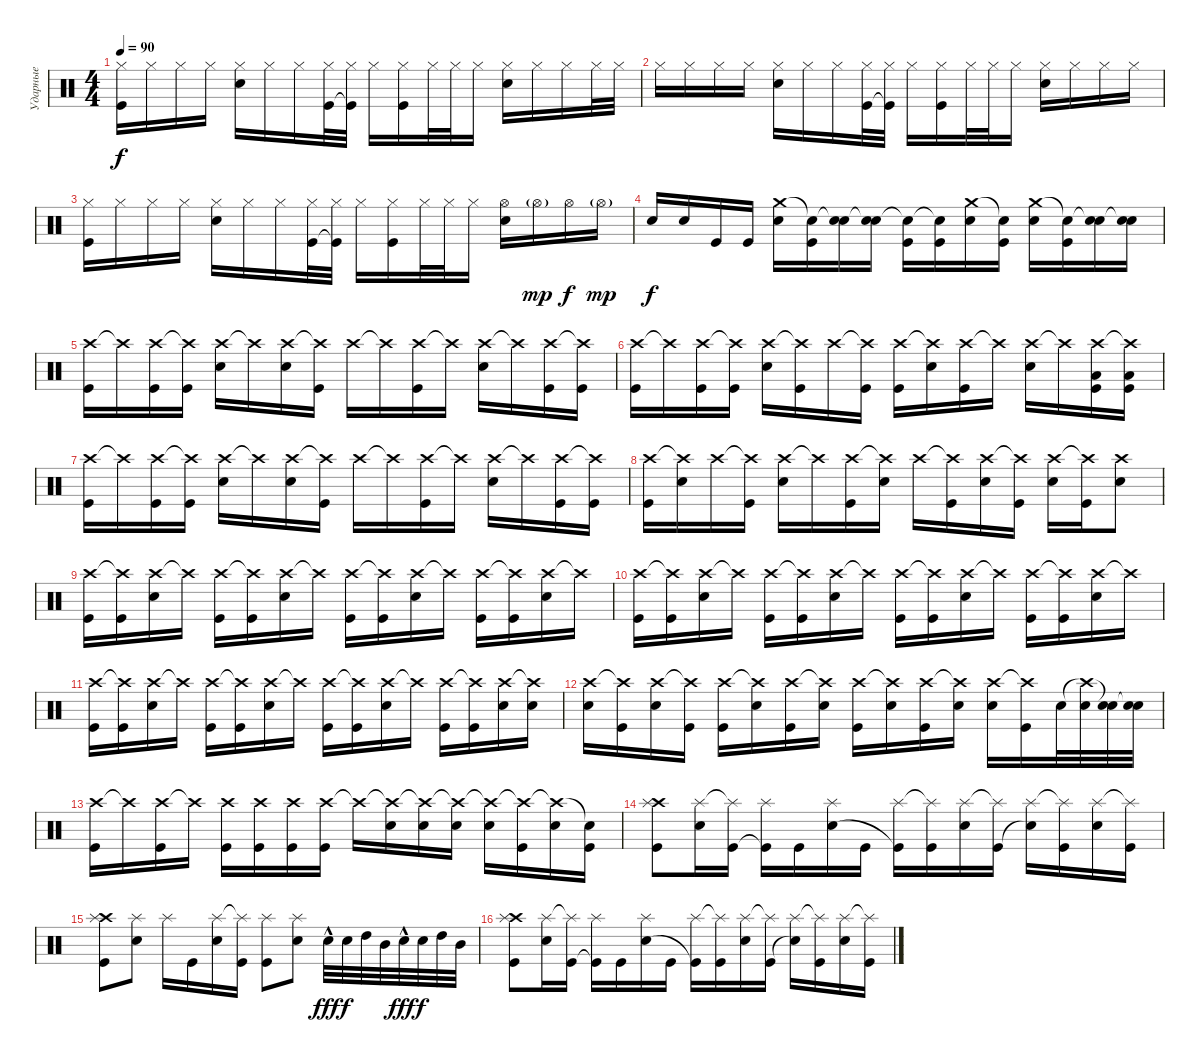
\track ("Ударные" "Ударные") {instrument percussion}
\staff {score}
\articulation defaults
\ts (4 4)
\tempo 90
\clef neutral
\ks c
("Hi-Hat (closed)" "Kick (hit)").16{dy f} "Hi-Hat (closed)".16 "Hi-Hat (closed)".16 "Hi-Hat (closed)".16 ("Hi-Hat (closed)" "Electric Snare (hit)").16 "Hi-Hat (closed)".16 "Hi-Hat (closed)".16 ("Hi-Hat (closed)" "Kick (hit)").32 ("Hi-Hat (closed)" "Kick (hit)"{t}).32 "Hi-Hat (closed)".16 ("Hi-Hat (closed)" "Kick (hit)").16 "Hi-Hat (closed)".32 "Hi-Hat (closed)".32 "Hi-Hat (closed)".16 ("Hi-Hat (closed)" "Electric Snare (hit)").16 "Hi-Hat (closed)".16 "Hi-Hat (closed)".16 "Hi-Hat (closed)".32 "Hi-Hat (closed)".32 |
"Hi-Hat (closed)".16 "Hi-Hat (closed)".16 "Hi-Hat (closed)".16 "Hi-Hat (closed)".16 ("Hi-Hat (closed)" "Electric Snare (hit)").16 "Hi-Hat (closed)".16 "Hi-Hat (closed)".16 ("Hi-Hat (closed)" "Kick (hit)").32 ("Hi-Hat (closed)" "Kick (hit)"{t}).32 "Hi-Hat (closed)".16 ("Hi-Hat (closed)" "Kick (hit)").16 "Hi-Hat (closed)".32 "Hi-Hat (closed)".32 "Hi-Hat (closed)".16 ("Hi-Hat (closed)" "Electric Snare (hit)").16 "Hi-Hat (closed)".16 "Hi-Hat (closed)".16 "Hi-Hat (closed)".16 |
("Hi-Hat (closed)" "Kick (hit)").16 "Hi-Hat (closed)".16 "Hi-Hat (closed)".16 "Hi-Hat (closed)".16 ("Hi-Hat (closed)" "Electric Snare (hit)").16 "Hi-Hat (closed)".16 "Hi-Hat (closed)".16 ("Hi-Hat (closed)" "Kick (hit)").32 ("Hi-Hat (closed)" "Kick (hit)"{t}).32 "Hi-Hat (closed)".16 ("Hi-Hat (closed)" "Kick (hit)").16 "Hi-Hat (closed)".32 "Hi-Hat (closed)".32 "Hi-Hat (closed)".16 ("Hi-Hat (open)" "Electric Snare (hit)").16 "Hi-Hat (open)"{g}.16{dy mp} "Hi-Hat (open)".16{dy f} "Hi-Hat (open)"{g}.16{dy mp} |
"Electric Snare (hit)".16{dy f} "Electric Snare (hit)".16 "Kick (hit)".16 "Kick (hit)".16 ("Crash medium (hit)" "Electric Snare (hit)").16 ("Snare (hit)"{t} "Kick (hit)").16 ("Snare (hit)"{t} "Electric Snare (hit)").16 ("Snare (hit)"{t} "Electric Snare (hit)").16 ("Snare (hit)"{t} "Kick (hit)").16 ("Snare (hit)"{t} "Kick (hit)").16 ("Crash medium (hit)" "Electric Snare (hit)").16 ("Snare (hit)"{t} "Kick (hit)").16 ("Crash medium (hit)" "Electric Snare (hit)").16 ("Snare (hit)"{t} "Kick (hit)").16 ("Snare (hit)"{t} "Electric Snare (hit)").16 ("Snare (hit)"{t} "Electric Snare (hit)").16 |
("Crash high (hit)" "Kick (hit)").16 "Crash high (hit)"{t}.16 ("Crash high (hit)" "Kick (hit)").16 ("Crash high (hit)"{t} "Kick (hit)").16 ("Crash high (hit)" "Electric Snare (hit)").16 "Crash high (hit)"{t}.16 ("Crash high (hit)" "Electric Snare (hit)").16 ("Crash high (hit)"{t} "Kick (hit)").16 "Crash high (hit)".16 "Crash high (hit)"{t}.16 ("Crash high (hit)" "Kick (hit)").16 "Crash high (hit)"{t}.16 ("Crash high (hit)" "Electric Snare (hit)").16 "Crash high (hit)"{t}.16 ("Crash high (hit)" "Kick (hit)").16 ("Crash high (hit)"{t} "Kick (hit)").16 |
("Crash high (hit)" "Kick (hit)").16 "Crash high (hit)"{t}.16 ("Crash high (hit)" "Kick (hit)").16 ("Crash high (hit)"{t} "Kick (hit)").16 ("Crash high (hit)" "Electric Snare (hit)").16 ("Crash high (hit)"{t} "Kick (hit)").16 "Crash high (hit)".16 ("Crash high (hit)"{t} "Kick (hit)").16 ("Crash high (hit)" "Kick (hit)").16 ("Crash high (hit)"{t} "Electric Snare (hit)").16 ("Crash high (hit)" "Kick (hit)").16 "Crash high (hit)"{t}.16 ("Crash high (hit)" "Electric Snare (hit)").16 "Crash high (hit)"{t}.16 ("Crash high (hit)" "Low Tom (hit)" "Kick (hit)").16 ("Crash high (hit)"{t} "Low Tom (hit)" "Kick (hit)").16 |
("Crash high (hit)" "Kick (hit)").16 "Crash high (hit)"{t}.16 ("Crash high (hit)" "Kick (hit)").16 ("Crash high (hit)"{t} "Kick (hit)").16 ("Crash high (hit)" "Electric Snare (hit)").16 "Crash high (hit)"{t}.16 ("Crash high (hit)" "Electric Snare (hit)").16 ("Crash high (hit)"{t} "Kick (hit)").16 "Crash high (hit)".16 "Crash high (hit)"{t}.16 ("Crash high (hit)" "Kick (hit)").16 "Crash high (hit)"{t}.16 ("Crash high (hit)" "Electric Snare (hit)").16 "Crash high (hit)"{t}.16 ("Crash high (hit)" "Kick (hit)").16 ("Crash high (hit)"{t} "Kick (hit)").16 |
("Crash high (hit)" "Kick (hit)").16 ("Crash high (hit)"{t} "Electric Snare (hit)").16 "Crash high (hit)".16 ("Crash high (hit)"{t} "Kick (hit)").16 ("Crash high (hit)" "Electric Snare (hit)").16 "Crash high (hit)"{t}.16 ("Crash high (hit)" "Kick (hit)").16 ("Crash high (hit)"{t} "Electric Snare (hit)").16 "Crash high (hit)".16 ("Crash high (hit)"{t} "Kick (hit)").16 ("Crash high (hit)" "Electric Snare (hit)").16 ("Crash high (hit)"{t} "Kick (hit)").16 ("Crash high (hit)" "Electric Snare (hit)").16 ("Crash high (hit)"{t} "Kick (hit)").16 ("Crash high (hit)" "Electric Snare (hit)").8 |
("Crash high (hit)" "Kick (hit)").16 ("Crash high (hit)"{t} "Kick (hit)").16 ("Crash high (hit)" "Electric Snare (hit)").16 "Crash high (hit)"{t}.16 ("Crash high (hit)" "Kick (hit)").16 ("Crash high (hit)"{t} "Kick (hit)").16 ("Crash high (hit)" "Electric Snare (hit)").16 "Crash high (hit)"{t}.16 ("Crash high (hit)" "Kick (hit)").16 ("Crash high (hit)"{t} "Kick (hit)").16 ("Crash high (hit)" "Electric Snare (hit)").16 "Crash high (hit)"{t}.16 ("Crash high (hit)" "Kick (hit)").16 ("Crash high (hit)"{t} "Kick (hit)").16 ("Crash high (hit)" "Electric Snare (hit)").16 "Crash high (hit)"{t}.16 |
("Crash high (hit)" "Kick (hit)").16 ("Crash high (hit)"{t} "Kick (hit)").16 ("Crash high (hit)" "Electric Snare (hit)").16 "Crash high (hit)"{t}.16 ("Crash high (hit)" "Kick (hit)").16 ("Crash high (hit)"{t} "Kick (hit)").16 ("Crash high (hit)" "Electric Snare (hit)").16 "Crash high (hit)"{t}.16 ("Crash high (hit)" "Kick (hit)").16 ("Crash high (hit)"{t} "Kick (hit)").16 ("Crash high (hit)" "Electric Snare (hit)").16 "Crash high (hit)"{t}.16 ("Crash high (hit)" "Kick (hit)").16 ("Crash high (hit)"{t} "Kick (hit)").16 ("Crash high (hit)" "Electric Snare (hit)").16 "Crash high (hit)"{t}.16 |
("Crash high (hit)" "Kick (hit)").16 ("Crash high (hit)"{t} "Kick (hit)").16 ("Crash high (hit)" "Electric Snare (hit)").16 "Crash high (hit)"{t}.16 ("Crash high (hit)" "Kick (hit)").16 ("Crash high (hit)"{t} "Kick (hit)").16 ("Crash high (hit)" "Electric Snare (hit)").16 "Crash high (hit)"{t}.16 ("Crash high (hit)" "Kick (hit)").16 ("Crash high (hit)"{t} "Kick (hit)").16 ("Crash high (hit)" "Electric Snare (hit)").16 "Crash high (hit)"{t}.16 ("Crash high (hit)" "Kick (hit)").16 ("Crash high (hit)"{t} "Kick (hit)").16 ("Crash high (hit)" "Electric Snare (hit)").16 ("Crash high (hit)"{t} "Electric Snare (hit)").16 |
("Crash high (hit)" "Electric Snare (hit)").16 ("Crash high (hit)"{t} "Kick (hit)").16 ("Crash high (hit)" "Electric Snare (hit)").16 ("Crash high (hit)"{t} "Kick (hit)").16 ("Crash high (hit)" "Kick (hit)").16 ("Crash high (hit)"{t} "Electric Snare (hit)").16 ("Crash high (hit)" "Kick (hit)").16 ("Crash high (hit)"{t} "Electric Snare (hit)").16 ("Crash high (hit)" "Kick (hit)").16 ("Crash high (hit)"{t} "Electric Snare (hit)").16 ("Crash high (hit)" "Kick (hit)").16 ("Crash high (hit)"{t} "Electric Snare (hit)").16 ("Crash high (hit)" "Electric Snare (hit)").16 ("Crash high (hit)"{t} "Kick (hit)").16 "Electric Snare (hit)".32 ("Crash high (hit)"{t} "Electric Snare (hit)").32 ("Snare (hit)"{t} "Electric Snare (hit)").32 ("Snare (hit)"{t} "Electric Snare (hit)").32 |
("Crash high (hit)" "Kick (hit)").16 "Crash high (hit)"{t}.16 ("Crash high (hit)" "Kick (hit)").16 "Crash high (hit)"{t}.16 ("Crash high (hit)" "Kick (hit)").16 ("Crash high (hit)" "Kick (hit)").16 ("Crash high (hit)" "Kick (hit)").16 ("Crash high (hit)" "Kick (hit)").16 "Crash high (hit)"{t}.16 ("Crash high (hit)"{t} "Electric Snare (hit)").16 ("Crash high (hit)"{t} "Electric Snare (hit)").16 ("Crash high (hit)"{t} "Electric Snare (hit)").16 ("Crash high (hit)"{t} "Electric Snare (hit)").16 ("Crash high (hit)"{t} "Kick (hit)").16 ("Crash high (hit)"{t} "Electric Snare (hit)").16 ("Snare (hit)"{t} "Kick (hit)").16 |
("Crash high (hit)" "Splash (hit)" "Kick (hit)").8 ("Splash (hit)" "Electric Snare (hit)").16 ("Splash (hit)"{t} "Kick (hit)").16 ("Splash (hit)" "Kick (hit)"{t}).16 "Kick (hit)".16 ("Splash (hit)" "Electric Snare (hit)").16 "Kick (hit)".16 ("Splash (hit)" "Kick (hit)"{t}).16 ("Splash (hit)"{t} "Kick (hit)").16 ("Splash (hit)" "Electric Snare (hit)").16 ("Splash (hit)"{t} "Kick (hit)").16 ("Splash (hit)" "Snare (hit)"{t}).16 ("Splash (hit)"{t} "Kick (hit)").16 ("Splash (hit)" "Electric Snare (hit)").16 ("Splash (hit)"{t} "Kick (hit)").16 |
("Crash high (hit)" "Splash (hit)" "Kick (hit)").8 ("Splash (hit)" "Electric Snare (hit)").8 "Splash (hit)".16 "Kick (hit)".16 ("Splash (hit)" "Electric Snare (hit)").16 ("Splash (hit)"{t} "Kick (hit)").16 ("Splash (hit)" "Kick (hit)").8 ("Splash (hit)" "Electric Snare (hit)").8 "Electric Snare (hit)"{hac}.32{dy fff} "Electric Snare (hit)".32{dy f} "High Tom (hit)".32 "Mid Tom (hit)".32 "Electric Snare (hit)"{hac}.32{dy fff} "Electric Snare (hit)".32{dy f} "High Tom (hit)".32 "Mid Tom (hit)".32 |
("Crash high (hit)" "Splash (hit)" "Kick (hit)").8 ("Splash (hit)" "Electric Snare (hit)").16 ("Splash (hit)"{t} "Kick (hit)").16 ("Splash (hit)" "Kick (hit)"{t}).16 "Kick (hit)".16 ("Splash (hit)" "Electric Snare (hit)").16 "Kick (hit)".16 ("Splash (hit)" "Kick (hit)"{t}).16 ("Splash (hit)"{t} "Kick (hit)").16 ("Splash (hit)" "Electric Snare (hit)").16 ("Splash (hit)"{t} "Kick (hit)").16 ("Splash (hit)" "Snare (hit)"{t}).16 ("Splash (hit)"{t} "Kick (hit)").16 ("Splash (hit)" "Electric Snare (hit)").16 ("Splash (hit)"{t} "Kick (hit)").16
